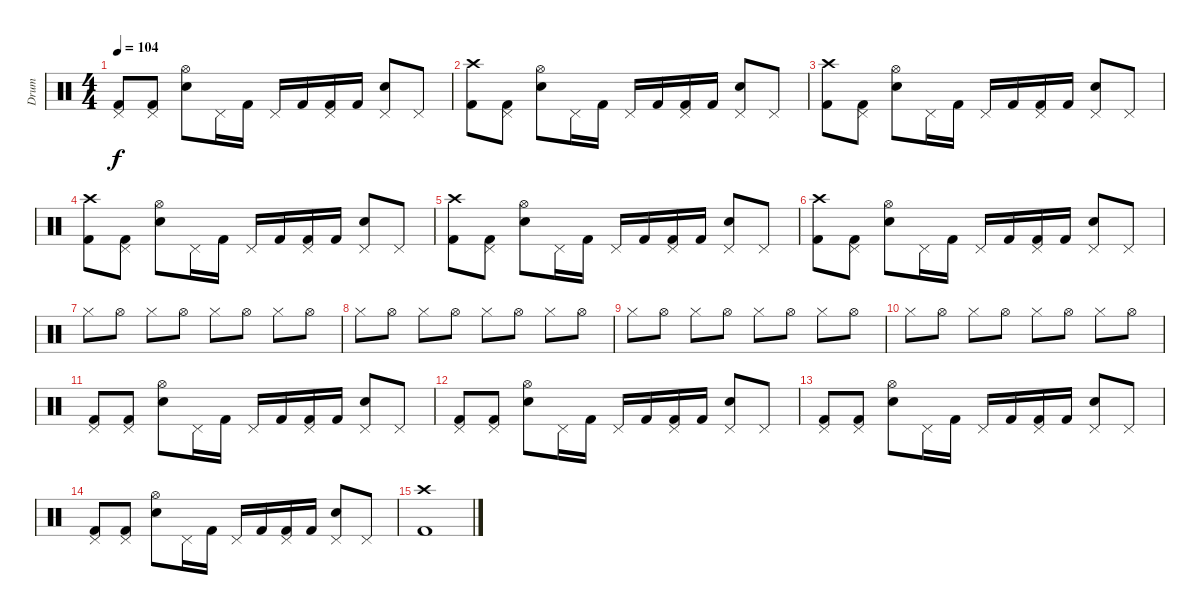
\track ("Drum" "Drum") {instrument percussion}
\staff {score}
\articulation defaults
\ts (4 4)
\tempo 104
\clef neutral
\ks c
("Pedal Hi-Hat (hit)" "Kick (hit) 2").8{dy f} ("Pedal Hi-Hat (hit)" "Kick (hit) 2").8 ("Hi-Hat (open)" "Snare (hit) 2").8 "Pedal Hi-Hat (hit)".16 "Kick (hit) 2".16 "Pedal Hi-Hat (hit)".16 "Kick (hit) 2".16 ("Pedal Hi-Hat (hit)" "Kick (hit) 2").16 "Kick (hit) 2".16 ("Pedal Hi-Hat (hit)" "Snare (hit) 2").8 "Pedal Hi-Hat (hit)".8 |
("Crash high (hit)" "Kick (hit) 2").8 ("Pedal Hi-Hat (hit)" "Kick (hit) 2").8 ("Hi-Hat (open)" "Snare (hit) 2").8 "Pedal Hi-Hat (hit)".16 "Kick (hit) 2".16 "Pedal Hi-Hat (hit)".16 "Kick (hit) 2".16 ("Pedal Hi-Hat (hit)" "Kick (hit) 2").16 "Kick (hit) 2".16 ("Pedal Hi-Hat (hit)" "Snare (hit) 2").8 "Pedal Hi-Hat (hit)".8 |
("Crash high (hit)" "Kick (hit) 2").8 ("Pedal Hi-Hat (hit)" "Kick (hit) 2").8 ("Hi-Hat (open)" "Snare (hit) 2").8 "Pedal Hi-Hat (hit)".16 "Kick (hit) 2".16 "Pedal Hi-Hat (hit)".16 "Kick (hit) 2".16 ("Pedal Hi-Hat (hit)" "Kick (hit) 2").16 "Kick (hit) 2".16 ("Pedal Hi-Hat (hit)" "Snare (hit) 2").8 "Pedal Hi-Hat (hit)".8 |
("Crash high (hit)" "Kick (hit) 2").8 ("Pedal Hi-Hat (hit)" "Kick (hit) 2").8 ("Hi-Hat (open)" "Snare (hit) 2").8 "Pedal Hi-Hat (hit)".16 "Kick (hit) 2".16 "Pedal Hi-Hat (hit)".16 "Kick (hit) 2".16 ("Pedal Hi-Hat (hit)" "Kick (hit) 2").16 "Kick (hit) 2".16 ("Pedal Hi-Hat (hit)" "Snare (hit) 2").8 "Pedal Hi-Hat (hit)".8 |
("Crash high (hit)" "Kick (hit) 2").8 ("Pedal Hi-Hat (hit)" "Kick (hit) 2").8 ("Hi-Hat (open)" "Snare (hit) 2").8 "Pedal Hi-Hat (hit)".16 "Kick (hit) 2".16 "Pedal Hi-Hat (hit)".16 "Kick (hit) 2".16 ("Pedal Hi-Hat (hit)" "Kick (hit) 2").16 "Kick (hit) 2".16 ("Pedal Hi-Hat (hit)" "Snare (hit) 2").8 "Pedal Hi-Hat (hit)".8 |
("Crash high (hit)" "Kick (hit) 2").8 ("Pedal Hi-Hat (hit)" "Kick (hit) 2").8 ("Hi-Hat (open)" "Snare (hit) 2").8 "Pedal Hi-Hat (hit)".16 "Kick (hit) 2".16 "Pedal Hi-Hat (hit)".16 "Kick (hit) 2".16 ("Pedal Hi-Hat (hit)" "Kick (hit) 2").16 "Kick (hit) 2".16 ("Pedal Hi-Hat (hit)" "Snare (hit) 2").8 "Pedal Hi-Hat (hit)".8 |
"Hi-Hat (closed)".8 "Hi-Hat (open)".8 "Hi-Hat (closed)".8 "Hi-Hat (open)".8 "Hi-Hat (closed)".8 "Hi-Hat (open)".8 "Hi-Hat (closed)".8 "Hi-Hat (open)".8 |
"Hi-Hat (closed)".8 "Hi-Hat (open)".8 "Hi-Hat (closed)".8 "Hi-Hat (open)".8 "Hi-Hat (closed)".8 "Hi-Hat (open)".8 "Hi-Hat (closed)".8 "Hi-Hat (open)".8 |
"Hi-Hat (closed)".8 "Hi-Hat (open)".8 "Hi-Hat (closed)".8 "Hi-Hat (open)".8 "Hi-Hat (closed)".8 "Hi-Hat (open)".8 "Hi-Hat (closed)".8 "Hi-Hat (open)".8 |
"Hi-Hat (closed)".8 "Hi-Hat (open)".8 "Hi-Hat (closed)".8 "Hi-Hat (open)".8 "Hi-Hat (closed)".8 "Hi-Hat (open)".8 "Hi-Hat (closed)".8 "Hi-Hat (open)".8 |
("Pedal Hi-Hat (hit)" "Kick (hit) 2").8 ("Pedal Hi-Hat (hit)" "Kick (hit) 2").8 ("Hi-Hat (open)" "Snare (hit) 2").8 "Pedal Hi-Hat (hit)".16 "Kick (hit) 2".16 "Pedal Hi-Hat (hit)".16 "Kick (hit) 2".16 ("Pedal Hi-Hat (hit)" "Kick (hit) 2").16 "Kick (hit) 2".16 ("Pedal Hi-Hat (hit)" "Snare (hit) 2").8 "Pedal Hi-Hat (hit)".8 |
("Pedal Hi-Hat (hit)" "Kick (hit) 2").8 ("Pedal Hi-Hat (hit)" "Kick (hit) 2").8 ("Hi-Hat (open)" "Snare (hit) 2").8 "Pedal Hi-Hat (hit)".16 "Kick (hit) 2".16 "Pedal Hi-Hat (hit)".16 "Kick (hit) 2".16 ("Pedal Hi-Hat (hit)" "Kick (hit) 2").16 "Kick (hit) 2".16 ("Pedal Hi-Hat (hit)" "Snare (hit) 2").8 "Pedal Hi-Hat (hit)".8 |
("Pedal Hi-Hat (hit)" "Kick (hit) 2").8 ("Pedal Hi-Hat (hit)" "Kick (hit) 2").8 ("Hi-Hat (open)" "Snare (hit) 2").8 "Pedal Hi-Hat (hit)".16 "Kick (hit) 2".16 "Pedal Hi-Hat (hit)".16 "Kick (hit) 2".16 ("Pedal Hi-Hat (hit)" "Kick (hit) 2").16 "Kick (hit) 2".16 ("Pedal Hi-Hat (hit)" "Snare (hit) 2").8 "Pedal Hi-Hat (hit)".8 |
("Pedal Hi-Hat (hit)" "Kick (hit) 2").8 ("Pedal Hi-Hat (hit)" "Kick (hit) 2").8 ("Hi-Hat (open)" "Snare (hit) 2").8 "Pedal Hi-Hat (hit)".16 "Kick (hit) 2".16 "Pedal Hi-Hat (hit)".16 "Kick (hit) 2".16 ("Pedal Hi-Hat (hit)" "Kick (hit) 2").16 "Kick (hit) 2".16 ("Pedal Hi-Hat (hit)" "Snare (hit) 2").8 "Pedal Hi-Hat (hit)".8 |
("Crash high (hit)" "Kick (hit) 2").1
